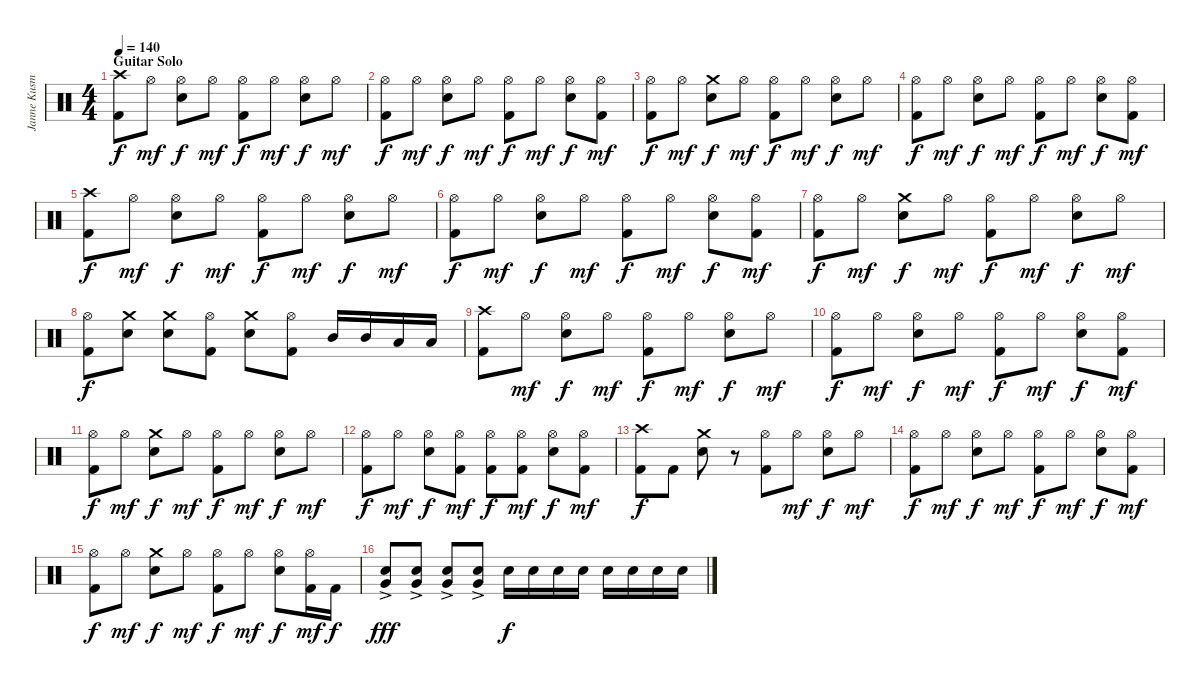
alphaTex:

\track ("Janne Kusmin" "Janne Kusm") {instrument percussion}
\staff {score}
\articulation defaults
\ts (4 4)
\section ("" "Guitar Solo")
\tempo 140
\clef neutral
\ks c
("Crash high (hit)" "Kick (hit) 2").8{dy f} "Hi-Hat (open)".8{dy mf} ("Hi-Hat (open)" "Electric Snare (hit)").8{dy f} "Hi-Hat (open)".8{dy mf} ("Hi-Hat (open)" "Kick (hit) 2").8{dy f} "Hi-Hat (open)".8{dy mf} ("Hi-Hat (open)" "Electric Snare (hit)").8{dy f} "Hi-Hat (open)".8{dy mf} |
("Hi-Hat (open)" "Kick (hit) 2").8{dy f} "Hi-Hat (open)".8{dy mf} ("Hi-Hat (open)" "Electric Snare (hit)").8{dy f} "Hi-Hat (open)".8{dy mf} ("Hi-Hat (open)" "Kick (hit) 2").8{dy f} "Hi-Hat (open)".8{dy mf} ("Hi-Hat (open)" "Electric Snare (hit)").8{dy f} ("Hi-Hat (open)" "Kick (hit) 2").8{dy mf} |
("Hi-Hat (open)" "Kick (hit) 2").8{dy f} "Hi-Hat (open)".8{dy mf} ("Crash medium (hit)" "Electric Snare (hit)").8{dy f} "Hi-Hat (open)".8{dy mf} ("Hi-Hat (open)" "Kick (hit) 2").8{dy f} "Hi-Hat (open)".8{dy mf} ("Hi-Hat (open)" "Electric Snare (hit)").8{dy f} "Hi-Hat (open)".8{dy mf} |
("Hi-Hat (open)" "Kick (hit) 2").8{dy f} "Hi-Hat (open)".8{dy mf} ("Hi-Hat (open)" "Electric Snare (hit)").8{dy f} "Hi-Hat (open)".8{dy mf} ("Hi-Hat (open)" "Kick (hit) 2").8{dy f} "Hi-Hat (open)".8{dy mf} ("Hi-Hat (open)" "Electric Snare (hit)").8{dy f} ("Hi-Hat (open)" "Kick (hit) 2").8{dy mf} |
("Crash high (hit)" "Kick (hit) 2").8{dy f} "Hi-Hat (open)".8{dy mf} ("Hi-Hat (open)" "Electric Snare (hit)").8{dy f} "Hi-Hat (open)".8{dy mf} ("Hi-Hat (open)" "Kick (hit) 2").8{dy f} "Hi-Hat (open)".8{dy mf} ("Hi-Hat (open)" "Electric Snare (hit)").8{dy f} "Hi-Hat (open)".8{dy mf} |
("Hi-Hat (open)" "Kick (hit) 2").8{dy f} "Hi-Hat (open)".8{dy mf} ("Hi-Hat (open)" "Electric Snare (hit)").8{dy f} "Hi-Hat (open)".8{dy mf} ("Hi-Hat (open)" "Kick (hit) 2").8{dy f} "Hi-Hat (open)".8{dy mf} ("Hi-Hat (open)" "Electric Snare (hit)").8{dy f} ("Hi-Hat (open)" "Kick (hit) 2").8{dy mf} |
("Hi-Hat (open)" "Kick (hit) 2").8{dy f} "Hi-Hat (open)".8{dy mf} ("Crash medium (hit)" "Electric Snare (hit)").8{dy f} "Hi-Hat (open)".8{dy mf} ("Hi-Hat (open)" "Kick (hit) 2").8{dy f} "Hi-Hat (open)".8{dy mf} ("Hi-Hat (open)" "Electric Snare (hit)").8{dy f} "Hi-Hat (open)".8{dy mf} |
("Hi-Hat (open)" "Kick (hit) 2").8{dy f} ("Crash medium (hit)" "Electric Snare (hit)").8 ("Crash medium (hit)" "Electric Snare (hit)").8 ("Hi-Hat (open)" "Kick (hit) 2").8 ("Crash medium (hit)" "Electric Snare (hit)").8 ("Hi-Hat (open)" "Kick (hit) 2").8 "Mid Tom (hit)".16 "Mid Tom (hit)".16 "Low Tom (hit)".16 "Low Tom (hit)".16 |
("Crash high (hit)" "Kick (hit) 2").8 "Hi-Hat (open)".8{dy mf} ("Hi-Hat (open)" "Electric Snare (hit)").8{dy f} "Hi-Hat (open)".8{dy mf} ("Hi-Hat (open)" "Kick (hit) 2").8{dy f} "Hi-Hat (open)".8{dy mf} ("Hi-Hat (open)" "Electric Snare (hit)").8{dy f} "Hi-Hat (open)".8{dy mf} |
("Hi-Hat (open)" "Kick (hit) 2").8{dy f} "Hi-Hat (open)".8{dy mf} ("Hi-Hat (open)" "Electric Snare (hit)").8{dy f} "Hi-Hat (open)".8{dy mf} ("Hi-Hat (open)" "Kick (hit) 2").8{dy f} "Hi-Hat (open)".8{dy mf} ("Hi-Hat (open)" "Electric Snare (hit)").8{dy f} ("Hi-Hat (open)" "Kick (hit) 2").8{dy mf} |
("Hi-Hat (open)" "Kick (hit) 2").8{dy f} "Hi-Hat (open)".8{dy mf} ("Crash medium (hit)" "Electric Snare (hit)").8{dy f} "Hi-Hat (open)".8{dy mf} ("Hi-Hat (open)" "Kick (hit) 2").8{dy f} "Hi-Hat (open)".8{dy mf} ("Hi-Hat (open)" "Electric Snare (hit)").8{dy f} "Hi-Hat (open)".8{dy mf} |
("Hi-Hat (open)" "Kick (hit) 2").8{dy f} "Hi-Hat (open)".8{dy mf} ("Hi-Hat (open)" "Electric Snare (hit)").8{dy f} ("Hi-Hat (open)" "Kick (hit) 2").8{dy mf} ("Hi-Hat (open)" "Kick (hit) 2").8{dy f} ("Hi-Hat (open)" "Kick (hit) 2").8{dy mf} ("Hi-Hat (open)" "Electric Snare (hit)").8{dy f} ("Hi-Hat (open)" "Kick (hit) 2").8{dy mf} |
("Crash high (hit)" "Kick (hit) 2").8{dy f} "Kick (hit) 2".8 ("Crash medium (hit)" "Electric Snare (hit)").8 r.8 ("Hi-Hat (open)" "Kick (hit) 2").8 "Hi-Hat (open)".8{dy mf} ("Hi-Hat (open)" "Electric Snare (hit)").8{dy f} "Hi-Hat (open)".8{dy mf} |
("Hi-Hat (open)" "Kick (hit) 2").8{dy f} "Hi-Hat (open)".8{dy mf} ("Hi-Hat (open)" "Electric Snare (hit)").8{dy f} "Hi-Hat (open)".8{dy mf} ("Hi-Hat (open)" "Kick (hit) 2").8{dy f} "Hi-Hat (open)".8{dy mf} ("Hi-Hat (open)" "Electric Snare (hit)").8{dy f} ("Hi-Hat (open)" "Kick (hit) 2").8{dy mf} |
("Hi-Hat (open)" "Kick (hit) 2").8{dy f} "Hi-Hat (open)".8{dy mf} ("Crash medium (hit)" "Electric Snare (hit)").8{dy f} "Hi-Hat (open)".8{dy mf} ("Hi-Hat (open)" "Kick (hit) 2").8{dy f} "Hi-Hat (open)".8{dy mf} ("Hi-Hat (open)" "Electric Snare (hit)").8{dy f} ("Hi-Hat (open)" "Kick (hit) 2").16{dy mf} "Kick (hit) 2".16{dy f} |
("Very Low Tom (hit)"{ac} "Electric Snare (hit)").8{dy fff} ("Very Low Tom (hit)"{ac} "Electric Snare (hit)").8 ("Very Low Tom (hit)"{ac} "Electric Snare (hit)").8 ("Very Low Tom (hit)"{ac} "Electric Snare (hit)").8 "Electric Snare (hit)".16{dy f} "Electric Snare (hit)".16 "Electric Snare (hit)".16 "Electric Snare (hit)".16 "Electric Snare (hit)".16 "Electric Snare (hit)".16 "Electric Snare (hit)".16 "Electric Snare (hit)".16
